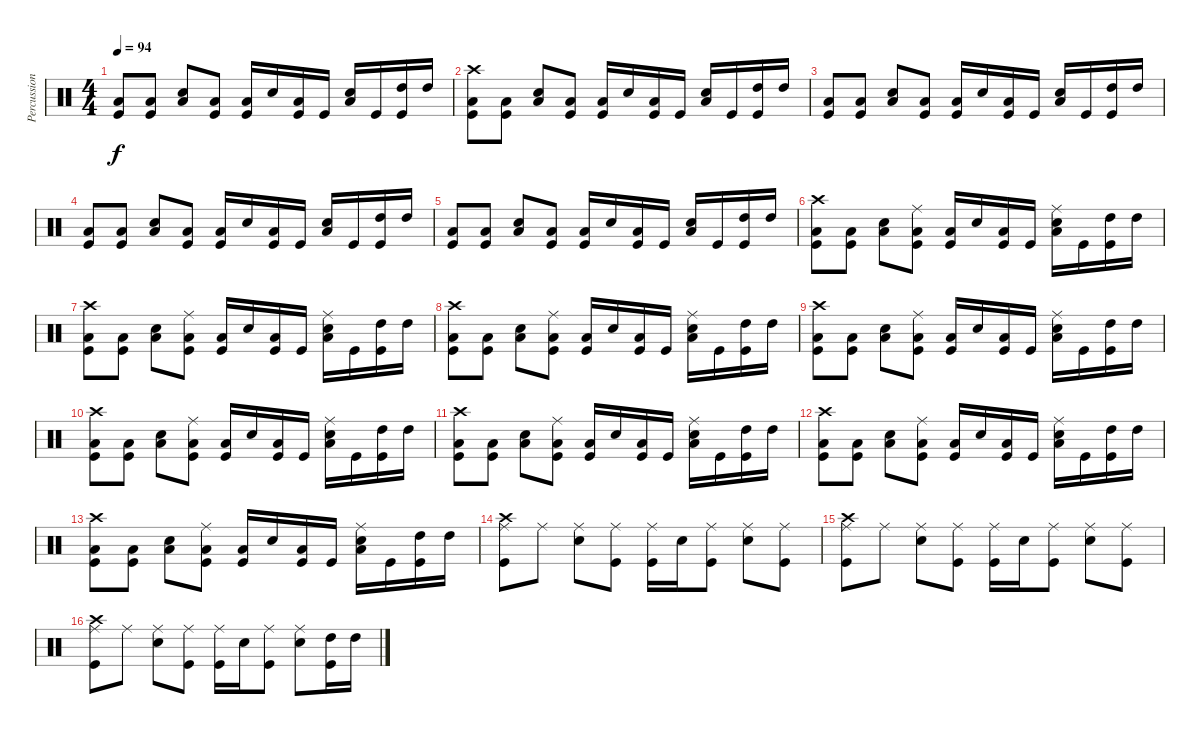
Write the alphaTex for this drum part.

\track ("Percussions" "Percussion") {instrument percussion}
\staff {score}
\articulation defaults
\ts (4 4)
\tempo 94
\clef neutral
\ks c
("Kick (hit)" "Low Floor Tom (hit)").8{dy f} ("Kick (hit)" "Low Floor Tom (hit)").8 ("Electric Snare (hit)" "Low Floor Tom (hit)").8 ("Kick (hit)" "Low Floor Tom (hit)").8 ("Kick (hit)" "Low Floor Tom (hit)").16 "Electric Snare (hit)".16 ("Kick (hit)" "Low Floor Tom (hit)").16 "Kick (hit)".16 ("Electric Snare (hit)" "Low Floor Tom (hit)").16 "Kick (hit)".16 ("High Tom (hit)" "Kick (hit)").16 "High Tom (hit)".16 |
("Crash high (hit)" "Kick (hit)" "Low Floor Tom (hit)").8 ("Kick (hit)" "Low Floor Tom (hit)").8 ("Electric Snare (hit)" "Low Floor Tom (hit)").8 ("Kick (hit)" "Low Floor Tom (hit)").8 ("Kick (hit)" "Low Floor Tom (hit)").16 "Electric Snare (hit)".16 ("Kick (hit)" "Low Floor Tom (hit)").16 "Kick (hit)".16 ("Electric Snare (hit)" "Low Floor Tom (hit)").16 "Kick (hit)".16 ("High Tom (hit)" "Kick (hit)").16 "High Tom (hit)".16 |
("Kick (hit)" "Low Floor Tom (hit)").8 ("Kick (hit)" "Low Floor Tom (hit)").8 ("Electric Snare (hit)" "Low Floor Tom (hit)").8 ("Kick (hit)" "Low Floor Tom (hit)").8 ("Kick (hit)" "Low Floor Tom (hit)").16 "Electric Snare (hit)".16 ("Kick (hit)" "Low Floor Tom (hit)").16 "Kick (hit)".16 ("Electric Snare (hit)" "Low Floor Tom (hit)").16 "Kick (hit)".16 ("High Tom (hit)" "Kick (hit)").16 "High Tom (hit)".16 |
("Kick (hit)" "Low Floor Tom (hit)").8 ("Kick (hit)" "Low Floor Tom (hit)").8 ("Electric Snare (hit)" "Low Floor Tom (hit)").8 ("Kick (hit)" "Low Floor Tom (hit)").8 ("Kick (hit)" "Low Floor Tom (hit)").16 "Electric Snare (hit)".16 ("Kick (hit)" "Low Floor Tom (hit)").16 "Kick (hit)".16 ("Electric Snare (hit)" "Low Floor Tom (hit)").16 "Kick (hit)".16 ("High Tom (hit)" "Kick (hit)").16 "High Tom (hit)".16 |
("Kick (hit)" "Low Floor Tom (hit)").8 ("Kick (hit)" "Low Floor Tom (hit)").8 ("Electric Snare (hit)" "Low Floor Tom (hit)").8 ("Kick (hit)" "Low Floor Tom (hit)").8 ("Kick (hit)" "Low Floor Tom (hit)").16 "Electric Snare (hit)".16 ("Kick (hit)" "Low Floor Tom (hit)").16 "Kick (hit)".16 ("Electric Snare (hit)" "Low Floor Tom (hit)").16 "Kick (hit)".16 ("High Tom (hit)" "Kick (hit)").16 "High Tom (hit)".16 |
("Crash high (hit)" "Kick (hit)" "Low Floor Tom (hit)").8 ("Kick (hit)" "Low Floor Tom (hit)").8 ("Electric Snare (hit)" "Low Floor Tom (hit)").8 ("Ride (middle)" "Kick (hit)" "Low Floor Tom (hit)").8 ("Kick (hit)" "Low Floor Tom (hit)").16 "Electric Snare (hit)".16 ("Kick (hit)" "Low Floor Tom (hit)").16 "Kick (hit)".16 ("Ride (middle)" "Electric Snare (hit)" "Low Floor Tom (hit)").16 "Kick (hit)".16 ("High Tom (hit)" "Kick (hit)").16 "High Tom (hit)".16 |
("Crash high (hit)" "Kick (hit)" "Low Floor Tom (hit)").8 ("Kick (hit)" "Low Floor Tom (hit)").8 ("Electric Snare (hit)" "Low Floor Tom (hit)").8 ("Ride (middle)" "Kick (hit)" "Low Floor Tom (hit)").8 ("Kick (hit)" "Low Floor Tom (hit)").16 "Electric Snare (hit)".16 ("Kick (hit)" "Low Floor Tom (hit)").16 "Kick (hit)".16 ("Ride (middle)" "Electric Snare (hit)" "Low Floor Tom (hit)").16 "Kick (hit)".16 ("High Tom (hit)" "Kick (hit)").16 "High Tom (hit)".16 |
("Crash high (hit)" "Kick (hit)" "Low Floor Tom (hit)").8 ("Kick (hit)" "Low Floor Tom (hit)").8 ("Electric Snare (hit)" "Low Floor Tom (hit)").8 ("Ride (middle)" "Kick (hit)" "Low Floor Tom (hit)").8 ("Kick (hit)" "Low Floor Tom (hit)").16 "Electric Snare (hit)".16 ("Kick (hit)" "Low Floor Tom (hit)").16 "Kick (hit)".16 ("Ride (middle)" "Electric Snare (hit)" "Low Floor Tom (hit)").16 "Kick (hit)".16 ("High Tom (hit)" "Kick (hit)").16 "High Tom (hit)".16 |
("Crash high (hit)" "Kick (hit)" "Low Floor Tom (hit)").8 ("Kick (hit)" "Low Floor Tom (hit)").8 ("Electric Snare (hit)" "Low Floor Tom (hit)").8 ("Ride (middle)" "Kick (hit)" "Low Floor Tom (hit)").8 ("Kick (hit)" "Low Floor Tom (hit)").16 "Electric Snare (hit)".16 ("Kick (hit)" "Low Floor Tom (hit)").16 "Kick (hit)".16 ("Ride (middle)" "Electric Snare (hit)" "Low Floor Tom (hit)").16 "Kick (hit)".16 ("High Tom (hit)" "Kick (hit)").16 "High Tom (hit)".16 |
("Crash high (hit)" "Kick (hit)" "Low Floor Tom (hit)").8 ("Kick (hit)" "Low Floor Tom (hit)").8 ("Electric Snare (hit)" "Low Floor Tom (hit)").8 ("Ride (middle)" "Kick (hit)" "Low Floor Tom (hit)").8 ("Kick (hit)" "Low Floor Tom (hit)").16 "Electric Snare (hit)".16 ("Kick (hit)" "Low Floor Tom (hit)").16 "Kick (hit)".16 ("Ride (middle)" "Electric Snare (hit)" "Low Floor Tom (hit)").16 "Kick (hit)".16 ("High Tom (hit)" "Kick (hit)").16 "High Tom (hit)".16 |
("Crash high (hit)" "Kick (hit)" "Low Floor Tom (hit)").8 ("Kick (hit)" "Low Floor Tom (hit)").8 ("Electric Snare (hit)" "Low Floor Tom (hit)").8 ("Ride (middle)" "Kick (hit)" "Low Floor Tom (hit)").8 ("Kick (hit)" "Low Floor Tom (hit)").16 "Electric Snare (hit)".16 ("Kick (hit)" "Low Floor Tom (hit)").16 "Kick (hit)".16 ("Ride (middle)" "Electric Snare (hit)" "Low Floor Tom (hit)").16 "Kick (hit)".16 ("High Tom (hit)" "Kick (hit)").16 "High Tom (hit)".16 |
("Crash high (hit)" "Kick (hit)" "Low Floor Tom (hit)").8 ("Kick (hit)" "Low Floor Tom (hit)").8 ("Electric Snare (hit)" "Low Floor Tom (hit)").8 ("Ride (middle)" "Kick (hit)" "Low Floor Tom (hit)").8 ("Kick (hit)" "Low Floor Tom (hit)").16 "Electric Snare (hit)".16 ("Kick (hit)" "Low Floor Tom (hit)").16 "Kick (hit)".16 ("Ride (middle)" "Electric Snare (hit)" "Low Floor Tom (hit)").16 "Kick (hit)".16 ("High Tom (hit)" "Kick (hit)").16 "High Tom (hit)".16 |
("Crash high (hit)" "Kick (hit)" "Low Floor Tom (hit)").8 ("Kick (hit)" "Low Floor Tom (hit)").8 ("Electric Snare (hit)" "Low Floor Tom (hit)").8 ("Ride (middle)" "Kick (hit)" "Low Floor Tom (hit)").8 ("Kick (hit)" "Low Floor Tom (hit)").16 "Electric Snare (hit)".16 ("Kick (hit)" "Low Floor Tom (hit)").16 "Kick (hit)".16 ("Ride (middle)" "Electric Snare (hit)" "Low Floor Tom (hit)").16 "Kick (hit)".16 ("High Tom (hit)" "Kick (hit)").16 "High Tom (hit)".16 |
("Kick (hit)" "Crash high (hit)" "Ride (middle)").8 "Ride (middle)".8 ("Electric Snare (hit)" "Ride (middle)").8 ("Kick (hit)" "Ride (middle)").8 ("Kick (hit)" "Ride (middle)").16 "Electric Snare (hit)".16 ("Kick (hit)" "Ride (middle)").8 ("Electric Snare (hit)" "Ride (middle)").8 ("Kick (hit)" "Ride (middle)").8 |
("Kick (hit)" "Crash high (hit)" "Ride (middle)").8 "Ride (middle)".8 ("Electric Snare (hit)" "Ride (middle)").8 ("Kick (hit)" "Ride (middle)").8 ("Kick (hit)" "Ride (middle)").16 "Electric Snare (hit)".16 ("Kick (hit)" "Ride (middle)").8 ("Electric Snare (hit)" "Ride (middle)").8 ("Kick (hit)" "Ride (middle)").8 |
("Kick (hit)" "Crash high (hit)" "Ride (middle)").8 "Ride (middle)".8 ("Electric Snare (hit)" "Ride (middle)").8 ("Kick (hit)" "Ride (middle)").8 ("Kick (hit)" "Ride (middle)").16 "Electric Snare (hit)".16 ("Kick (hit)" "Ride (middle)").8 ("Electric Snare (hit)" "Ride (middle)").8 ("High Tom (hit)" "Kick (hit)").16 "High Tom (hit)".16
